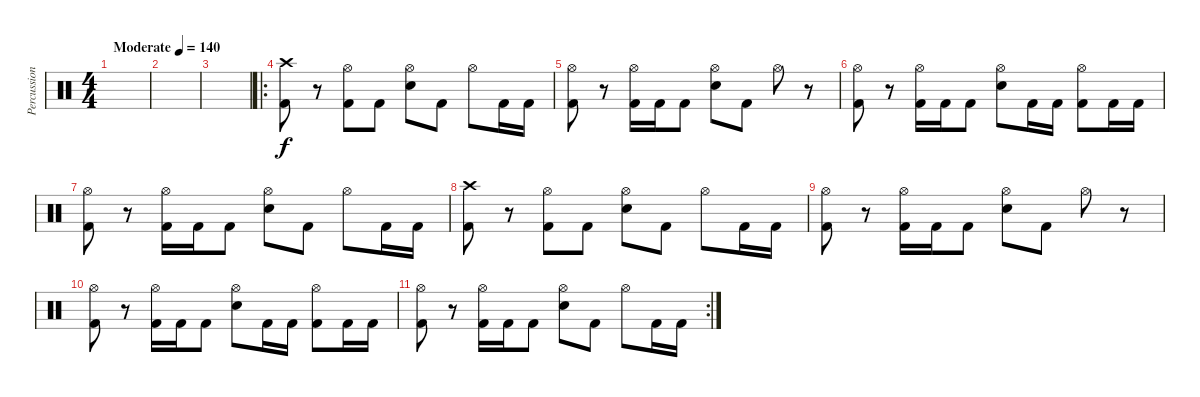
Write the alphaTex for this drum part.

\track ("Percussion" "Percussion") {instrument percussion}
\staff {score}
\articulation defaults
\ts (4 4)
\tempo (140 "Moderate")
\clef neutral
\ks c
|
|
|
\ro
("Crash high (hit)" "Kick (hit) 2").8 r.8 ("Hi-Hat (open)" "Kick (hit) 2").8 "Kick (hit) 2".8 ("Hi-Hat (open)" "Electric Snare (hit)").8 "Kick (hit) 2".8 "Hi-Hat (open)".8 "Kick (hit) 2".16 "Kick (hit) 2".16 |
("Hi-Hat (open)" "Kick (hit) 2").8 r.8 ("Hi-Hat (open)" "Kick (hit) 2").16 "Kick (hit) 2".16 "Kick (hit) 2".8 ("Hi-Hat (open)" "Electric Snare (hit)").8 "Kick (hit) 2".8 "Hi-Hat (open)".8 r.8 |
("Hi-Hat (open)" "Kick (hit) 2").8 r.8 ("Hi-Hat (open)" "Kick (hit) 2").16 "Kick (hit) 2".16 "Kick (hit) 2".8 ("Hi-Hat (open)" "Electric Snare (hit)").8 "Kick (hit) 2".16 "Kick (hit) 2".16 ("Hi-Hat (open)" "Kick (hit) 2").8 "Kick (hit) 2".16 "Kick (hit) 2".16 |
("Hi-Hat (open)" "Kick (hit) 2").8 r.8 ("Hi-Hat (open)" "Kick (hit) 2").16 "Kick (hit) 2".16 "Kick (hit) 2".8 ("Hi-Hat (open)" "Electric Snare (hit)").8 "Kick (hit) 2".8 "Hi-Hat (open)".8 "Kick (hit) 2".16 "Kick (hit) 2".16 |
("Crash high (hit)" "Kick (hit) 2").8 r.8 ("Hi-Hat (open)" "Kick (hit) 2").8 "Kick (hit) 2".8 ("Hi-Hat (open)" "Electric Snare (hit)").8 "Kick (hit) 2".8 "Hi-Hat (open)".8 "Kick (hit) 2".16 "Kick (hit) 2".16 |
("Hi-Hat (open)" "Kick (hit) 2").8 r.8 ("Hi-Hat (open)" "Kick (hit) 2").16 "Kick (hit) 2".16 "Kick (hit) 2".8 ("Hi-Hat (open)" "Electric Snare (hit)").8 "Kick (hit) 2".8 "Hi-Hat (open)".8 r.8 |
("Hi-Hat (open)" "Kick (hit) 2").8 r.8 ("Hi-Hat (open)" "Kick (hit) 2").16 "Kick (hit) 2".16 "Kick (hit) 2".8 ("Hi-Hat (open)" "Electric Snare (hit)").8 "Kick (hit) 2".16 "Kick (hit) 2".16 ("Hi-Hat (open)" "Kick (hit) 2").8 "Kick (hit) 2".16 "Kick (hit) 2".16 |
\rc 2
("Hi-Hat (open)" "Kick (hit) 2").8 r.8 ("Hi-Hat (open)" "Kick (hit) 2").16 "Kick (hit) 2".16 "Kick (hit) 2".8 ("Hi-Hat (open)" "Electric Snare (hit)").8 "Kick (hit) 2".8 "Hi-Hat (open)".8 "Kick (hit) 2".16 "Kick (hit) 2".16
